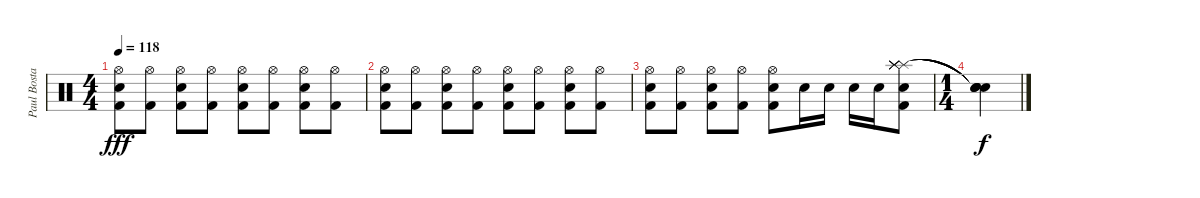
\track ("Paul Bostaph" "Paul Bosta") {instrument percussion}
\staff {score}
\articulation defaults
\ts (4 4)
\tempo 118
\clef neutral
\ks c
("Hi-Hat (open)" "Snare (hit) 2" "Kick (hit) 2").8{dy fff} ("Hi-Hat (open)" "Kick (hit) 2").8 ("Hi-Hat (open)" "Snare (hit) 2" "Kick (hit) 2").8 ("Hi-Hat (open)" "Kick (hit) 2").8 ("Hi-Hat (open)" "Snare (hit) 2" "Kick (hit) 2").8 ("Hi-Hat (open)" "Kick (hit) 2").8 ("Hi-Hat (open)" "Snare (hit) 2" "Kick (hit) 2").8 ("Hi-Hat (open)" "Kick (hit) 2").8 |
("Hi-Hat (open)" "Snare (hit) 2" "Kick (hit) 2").8 ("Hi-Hat (open)" "Kick (hit) 2").8 ("Hi-Hat (open)" "Snare (hit) 2" "Kick (hit) 2").8 ("Hi-Hat (open)" "Kick (hit) 2").8 ("Hi-Hat (open)" "Snare (hit) 2" "Kick (hit) 2").8 ("Hi-Hat (open)" "Kick (hit) 2").8 ("Hi-Hat (open)" "Snare (hit) 2" "Kick (hit) 2").8 ("Hi-Hat (open)" "Kick (hit) 2").8 |
("Hi-Hat (open)" "Snare (hit) 2" "Kick (hit) 2").8 ("Hi-Hat (open)" "Kick (hit) 2").8 ("Hi-Hat (open)" "Snare (hit) 2" "Kick (hit) 2").8 ("Hi-Hat (open)" "Kick (hit) 2").8 ("Hi-Hat (open)" "Snare (hit) 2" "Kick (hit) 2").8 "Snare (hit) 2".16 "Snare (hit) 2".16 "Snare (hit) 2".16 "Snare (hit) 2".16 ("Splash (hit)" "Splash (hit)" "Splash (hit)" "Splash (hit)" "Snare (hit) 2" "Kick (hit) 2").8 |
\ts (1 4)
("Snare (hit)"{t} "Snare (hit)"{t} "Snare (hit)"{t} "Snare (hit)"{t}).4{dy f}
